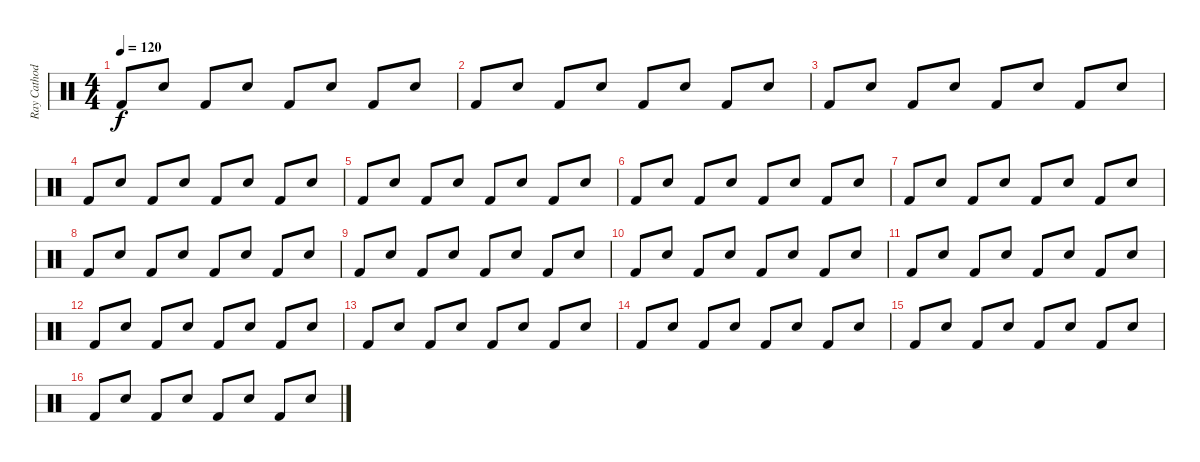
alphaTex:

\track ("Ray Cathode" "Ray Cathod") {instrument percussion}
\staff {score}
\articulation defaults
\ts (4 4)
\tempo 120
\clef neutral
\ks c "Kick (hit) 2".8{dy f} "Snare (hit) 2".8 "Kick (hit) 2".8 "Snare (hit) 2".8 "Kick (hit) 2".8 "Snare (hit) 2".8 "Kick (hit) 2".8 "Snare (hit) 2".8
|
"Kick (hit) 2".8 "Snare (hit) 2".8 "Kick (hit) 2".8 "Snare (hit) 2".8 "Kick (hit) 2".8 "Snare (hit) 2".8 "Kick (hit) 2".8 "Snare (hit) 2".8 |
"Kick (hit) 2".8 "Snare (hit) 2".8 "Kick (hit) 2".8 "Snare (hit) 2".8 "Kick (hit) 2".8 "Snare (hit) 2".8 "Kick (hit) 2".8 "Snare (hit) 2".8 |
"Kick (hit) 2".8 "Snare (hit) 2".8 "Kick (hit) 2".8 "Snare (hit) 2".8 "Kick (hit) 2".8 "Snare (hit) 2".8 "Kick (hit) 2".8 "Snare (hit) 2".8 |
"Kick (hit) 2".8 "Snare (hit) 2".8 "Kick (hit) 2".8 "Snare (hit) 2".8 "Kick (hit) 2".8 "Snare (hit) 2".8 "Kick (hit) 2".8 "Snare (hit) 2".8 |
"Kick (hit) 2".8 "Snare (hit) 2".8 "Kick (hit) 2".8 "Snare (hit) 2".8 "Kick (hit) 2".8 "Snare (hit) 2".8 "Kick (hit) 2".8 "Snare (hit) 2".8 |
"Kick (hit) 2".8 "Snare (hit) 2".8 "Kick (hit) 2".8 "Snare (hit) 2".8 "Kick (hit) 2".8 "Snare (hit) 2".8 "Kick (hit) 2".8 "Snare (hit) 2".8 |
"Kick (hit) 2".8 "Snare (hit) 2".8 "Kick (hit) 2".8 "Snare (hit) 2".8 "Kick (hit) 2".8 "Snare (hit) 2".8 "Kick (hit) 2".8 "Snare (hit) 2".8 |
"Kick (hit) 2".8 "Snare (hit) 2".8 "Kick (hit) 2".8 "Snare (hit) 2".8 "Kick (hit) 2".8 "Snare (hit) 2".8 "Kick (hit) 2".8 "Snare (hit) 2".8 |
"Kick (hit) 2".8 "Snare (hit) 2".8 "Kick (hit) 2".8 "Snare (hit) 2".8 "Kick (hit) 2".8 "Snare (hit) 2".8 "Kick (hit) 2".8 "Snare (hit) 2".8 |
"Kick (hit) 2".8 "Snare (hit) 2".8 "Kick (hit) 2".8 "Snare (hit) 2".8 "Kick (hit) 2".8 "Snare (hit) 2".8 "Kick (hit) 2".8 "Snare (hit) 2".8 |
"Kick (hit) 2".8 "Snare (hit) 2".8 "Kick (hit) 2".8 "Snare (hit) 2".8 "Kick (hit) 2".8 "Snare (hit) 2".8 "Kick (hit) 2".8 "Snare (hit) 2".8 |
"Kick (hit) 2".8 "Snare (hit) 2".8 "Kick (hit) 2".8 "Snare (hit) 2".8 "Kick (hit) 2".8 "Snare (hit) 2".8 "Kick (hit) 2".8 "Snare (hit) 2".8 |
"Kick (hit) 2".8 "Snare (hit) 2".8 "Kick (hit) 2".8 "Snare (hit) 2".8 "Kick (hit) 2".8 "Snare (hit) 2".8 "Kick (hit) 2".8 "Snare (hit) 2".8 |
"Kick (hit) 2".8 "Snare (hit) 2".8 "Kick (hit) 2".8 "Snare (hit) 2".8 "Kick (hit) 2".8 "Snare (hit) 2".8 "Kick (hit) 2".8 "Snare (hit) 2".8 |
"Kick (hit) 2".8 "Snare (hit) 2".8 "Kick (hit) 2".8 "Snare (hit) 2".8 "Kick (hit) 2".8 "Snare (hit) 2".8 "Kick (hit) 2".8 "Snare (hit) 2".8
